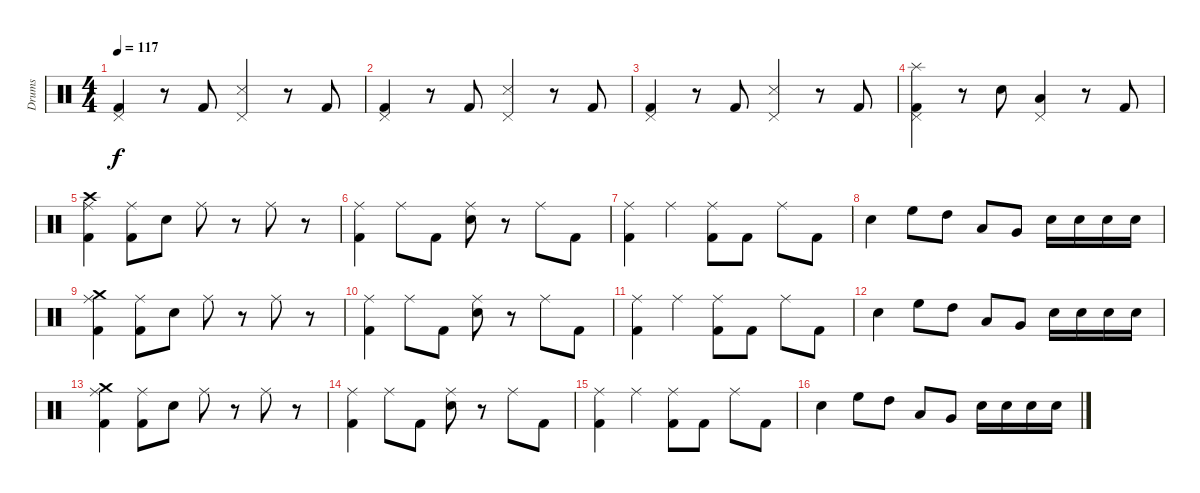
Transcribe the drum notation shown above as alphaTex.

\track ("Drums" "Drums") {instrument percussion}
\staff {score}
\articulation defaults
\ts (4 4)
\tempo 117
\clef neutral
\ks c
("Pedal Hi-Hat (hit)" "Kick (hit) 2").4{dy f} r.8 "Kick (hit) 2".8 ("Pedal Hi-Hat (hit)" "Snare (side stick) 3").4 r.8 "Kick (hit) 2".8 |
("Pedal Hi-Hat (hit)" "Kick (hit) 2").4 r.8 "Kick (hit) 2".8 ("Pedal Hi-Hat (hit)" "Snare (side stick) 3").4 r.8 "Kick (hit) 2".8 |
("Pedal Hi-Hat (hit)" "Kick (hit) 2").4 r.8 "Kick (hit) 2".8 ("Pedal Hi-Hat (hit)" "Snare (side stick) 3").4 r.8 "Kick (hit) 2".8 |
("Pedal Hi-Hat (hit)" "Splash (hit)" "Kick (hit) 2").4 r.8 "Snare (hit) 2".8 ("Pedal Hi-Hat (hit)" "Low Tom (hit)").4 r.8 "Kick (hit) 2".8 |
("Ride (middle)" "Kick (hit) 2" "Crash high (hit)").4 ("Ride (middle)" "Kick (hit) 2").8 "Snare (hit) 2".8 "Ride (middle)".8 r.8 "Ride (middle)".8 r.8 |
("Ride (middle)" "Kick (hit) 2").4 "Ride (middle)".8 "Kick (hit) 2".8 ("Ride (middle)" "Snare (hit) 2").8 r.8 "Ride (middle)".8 "Kick (hit) 2".8 |
("Ride (middle)" "Kick (hit) 2").4 "Ride (middle)".4 ("Ride (middle)" "Kick (hit) 2").8 "Kick (hit) 2".8 "Ride (middle)".8 "Kick (hit) 2".8 |
"Snare (hit) 2".4 "High Floor Tom (hit)".8 "High Tom (hit)".8 "Low Tom (hit)".8 "Very Low Tom (hit)".8 "Snare (hit) 2".16 "Snare (hit) 2".16 "Snare (hit) 2".16 "Snare (hit) 2".16 |
("Ride (middle)" "Kick (hit) 2" "Crash medium (hit)").4 ("Ride (middle)" "Kick (hit) 2").8 "Snare (hit) 2".8 "Ride (middle)".8 r.8 "Ride (middle)".8 r.8 |
("Ride (middle)" "Kick (hit) 2").4 "Ride (middle)".8 "Kick (hit) 2".8 ("Ride (middle)" "Snare (hit) 2").8 r.8 "Ride (middle)".8 "Kick (hit) 2".8 |
("Ride (middle)" "Kick (hit) 2").4 "Ride (middle)".4 ("Ride (middle)" "Kick (hit) 2").8 "Kick (hit) 2".8 "Ride (middle)".8 "Kick (hit) 2".8 |
"Snare (hit) 2".4 "High Floor Tom (hit)".8 "High Tom (hit)".8 "Low Tom (hit)".8 "Very Low Tom (hit)".8 "Snare (hit) 2".16 "Snare (hit) 2".16 "Snare (hit) 2".16 "Snare (hit) 2".16 |
("Ride (middle)" "Kick (hit) 2" "Crash medium (hit)").4 ("Ride (middle)" "Kick (hit) 2").8 "Snare (hit) 2".8 "Ride (middle)".8 r.8 "Ride (middle)".8 r.8 |
("Ride (middle)" "Kick (hit) 2").4 "Ride (middle)".8 "Kick (hit) 2".8 ("Ride (middle)" "Snare (hit) 2").8 r.8 "Ride (middle)".8 "Kick (hit) 2".8 |
("Ride (middle)" "Kick (hit) 2").4 "Ride (middle)".4 ("Ride (middle)" "Kick (hit) 2").8 "Kick (hit) 2".8 "Ride (middle)".8 "Kick (hit) 2".8 |
"Snare (hit) 2".4 "High Floor Tom (hit)".8 "High Tom (hit)".8 "Low Tom (hit)".8 "Very Low Tom (hit)".8 "Snare (hit) 2".16 "Snare (hit) 2".16 "Snare (hit) 2".16 "Snare (hit) 2".16
